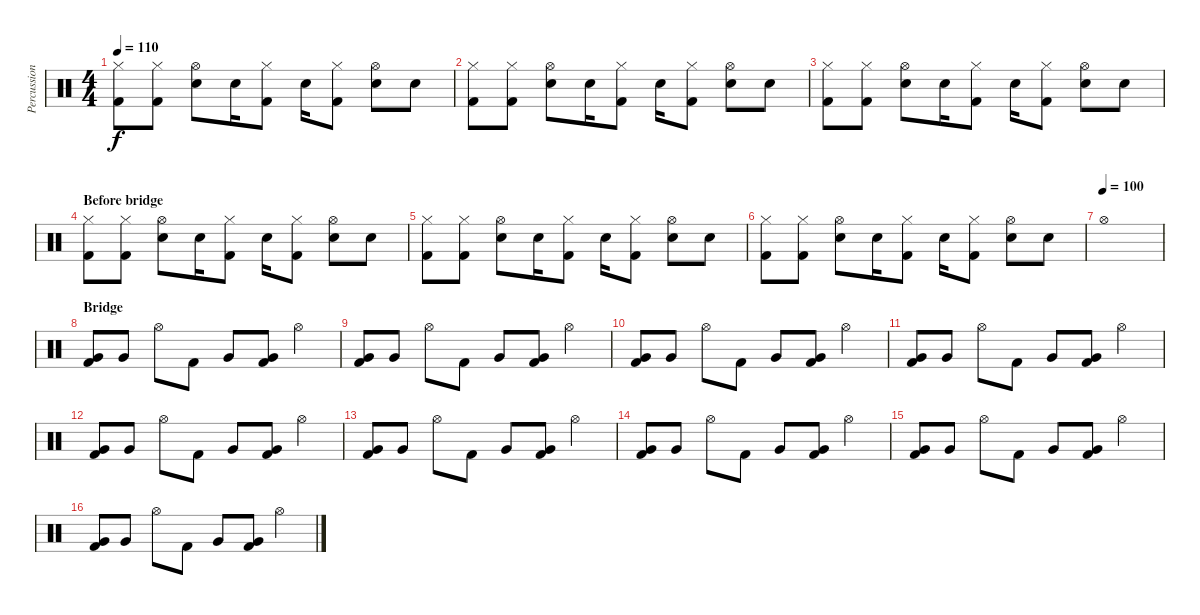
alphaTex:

\track ("Percussion" "Percussion") {instrument percussion}
\staff {score}
\articulation defaults
\ts (4 4)
\tempo 110
\clef neutral
\ks c
("Hi-Hat (closed)" "Kick (hit) 2").8{dy f} ("Hi-Hat (closed)" "Kick (hit) 2").8 ("Hi-Hat (open)" "Electric Snare (hit)").8 "Electric Snare (hit)".16 ("Hi-Hat (closed)" "Kick (hit) 2").8 "Electric Snare (hit)".16 ("Hi-Hat (closed)" "Kick (hit) 2").8 ("Hi-Hat (open)" "Electric Snare (hit)").8 "Electric Snare (hit)".8 |
("Hi-Hat (closed)" "Kick (hit) 2").8 ("Hi-Hat (closed)" "Kick (hit) 2").8 ("Hi-Hat (open)" "Electric Snare (hit)").8 "Electric Snare (hit)".16 ("Hi-Hat (closed)" "Kick (hit) 2").8 "Electric Snare (hit)".16 ("Hi-Hat (closed)" "Kick (hit) 2").8 ("Hi-Hat (open)" "Electric Snare (hit)").8 "Electric Snare (hit)".8 |
("Hi-Hat (closed)" "Kick (hit) 2").8 ("Hi-Hat (closed)" "Kick (hit) 2").8 ("Hi-Hat (open)" "Electric Snare (hit)").8 "Electric Snare (hit)".16 ("Hi-Hat (closed)" "Kick (hit) 2").8 "Electric Snare (hit)".16 ("Hi-Hat (closed)" "Kick (hit) 2").8 ("Hi-Hat (open)" "Electric Snare (hit)").8 "Electric Snare (hit)".8 |
\section ("" "Before bridge")
("Hi-Hat (closed)" "Kick (hit) 2").8 ("Hi-Hat (closed)" "Kick (hit) 2").8 ("Hi-Hat (open)" "Electric Snare (hit)").8 "Electric Snare (hit)".16 ("Hi-Hat (closed)" "Kick (hit) 2").8 "Electric Snare (hit)".16 ("Hi-Hat (closed)" "Kick (hit) 2").8 ("Hi-Hat (open)" "Electric Snare (hit)").8 "Electric Snare (hit)".8 |
("Hi-Hat (closed)" "Kick (hit) 2").8 ("Hi-Hat (closed)" "Kick (hit) 2").8 ("Hi-Hat (open)" "Electric Snare (hit)").8 "Electric Snare (hit)".16 ("Hi-Hat (closed)" "Kick (hit) 2").8 "Electric Snare (hit)".16 ("Hi-Hat (closed)" "Kick (hit) 2").8 ("Hi-Hat (open)" "Electric Snare (hit)").8 "Electric Snare (hit)".8 |
("Hi-Hat (closed)" "Kick (hit) 2").8 ("Hi-Hat (closed)" "Kick (hit) 2").8 ("Hi-Hat (open)" "Electric Snare (hit)").8 "Electric Snare (hit)".16 ("Hi-Hat (closed)" "Kick (hit) 2").8 "Electric Snare (hit)".16 ("Hi-Hat (closed)" "Kick (hit) 2").8 ("Hi-Hat (open)" "Electric Snare (hit)").8 "Electric Snare (hit)".8 |
\tempo (100)
"Hi-Hat (open)".1 |
\section ("" "Bridge")
("Very Low Tom (hit)" "Kick (hit) 2").8 "Very Low Tom (hit)".8 "Hi-Hat (open)".8 "Kick (hit) 2".8 "Very Low Tom (hit)".8 ("Very Low Tom (hit)" "Kick (hit) 2").8 "Hi-Hat (open)".4 |
("Very Low Tom (hit)" "Kick (hit) 2").8 "Very Low Tom (hit)".8 "Hi-Hat (open)".8 "Kick (hit) 2".8 "Very Low Tom (hit)".8 ("Very Low Tom (hit)" "Kick (hit) 2").8 "Hi-Hat (open)".4 |
("Very Low Tom (hit)" "Kick (hit) 2").8 "Very Low Tom (hit)".8 "Hi-Hat (open)".8 "Kick (hit) 2".8 "Very Low Tom (hit)".8 ("Very Low Tom (hit)" "Kick (hit) 2").8 "Hi-Hat (open)".4 |
("Very Low Tom (hit)" "Kick (hit) 2").8 "Very Low Tom (hit)".8 "Hi-Hat (open)".8 "Kick (hit) 2".8 "Very Low Tom (hit)".8 ("Very Low Tom (hit)" "Kick (hit) 2").8 "Hi-Hat (open)".4 |
("Very Low Tom (hit)" "Kick (hit) 2").8 "Very Low Tom (hit)".8 "Hi-Hat (open)".8 "Kick (hit) 2".8 "Very Low Tom (hit)".8 ("Very Low Tom (hit)" "Kick (hit) 2").8 "Hi-Hat (open)".4 |
("Very Low Tom (hit)" "Kick (hit) 2").8 "Very Low Tom (hit)".8 "Hi-Hat (open)".8 "Kick (hit) 2".8 "Very Low Tom (hit)".8 ("Very Low Tom (hit)" "Kick (hit) 2").8 "Hi-Hat (open)".4 |
("Very Low Tom (hit)" "Kick (hit) 2").8 "Very Low Tom (hit)".8 "Hi-Hat (open)".8 "Kick (hit) 2".8 "Very Low Tom (hit)".8 ("Very Low Tom (hit)" "Kick (hit) 2").8 "Hi-Hat (open)".4 |
("Very Low Tom (hit)" "Kick (hit) 2").8 "Very Low Tom (hit)".8 "Hi-Hat (open)".8 "Kick (hit) 2".8 "Very Low Tom (hit)".8 ("Very Low Tom (hit)" "Kick (hit) 2").8 "Hi-Hat (open)".4 |
("Very Low Tom (hit)" "Kick (hit) 2").8 "Very Low Tom (hit)".8 "Hi-Hat (open)".8 "Kick (hit) 2".8 "Very Low Tom (hit)".8 ("Very Low Tom (hit)" "Kick (hit) 2").8 "Hi-Hat (open)".4
